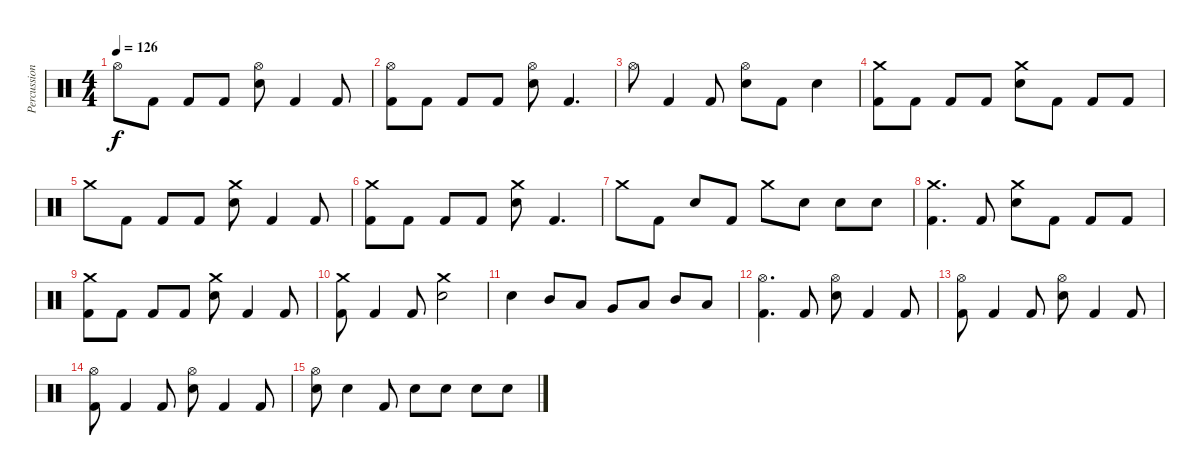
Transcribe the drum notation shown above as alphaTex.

\track ("Percussion" "Percussion") {instrument percussion}
\staff {score}
\articulation defaults
\ts (4 4)
\tempo 126
\clef neutral
\ks c "Hi-Hat (open)".8{dy f} "Kick (hit) 2".8 "Kick (hit) 2".8 "Kick (hit) 2".8
("Hi-Hat (open)" "Electric Snare (hit)").8 "Kick (hit) 2".4 "Kick (hit) 2".8 |
("Hi-Hat (open)" "Kick (hit) 2").8 "Kick (hit) 2".8 "Kick (hit) 2".8 "Kick (hit) 2".8 ("Hi-Hat (open)" "Electric Snare (hit)").8 "Kick (hit) 2".4{d} |
"Hi-Hat (open)".8 "Kick (hit) 2".4 "Kick (hit) 2".8 ("Hi-Hat (open)" "Electric Snare (hit)").8 "Kick (hit) 2".8 "Electric Snare (hit)".4 |
("Crash medium (hit)" "Kick (hit) 2").8{volume 10} "Kick (hit) 2".8 "Kick (hit) 2".8 "Kick (hit) 2".8 ("Crash medium (hit)" "Electric Snare (hit)").8 "Kick (hit) 2".8 "Kick (hit) 2".8 "Kick (hit) 2".8 |
"Crash medium (hit)".8 "Kick (hit) 2".8{volume 9} "Kick (hit) 2".8 "Kick (hit) 2".8 ("Crash medium (hit)" "Electric Snare (hit)").8 "Kick (hit) 2".4 "Kick (hit) 2".8 |
("Crash medium (hit)" "Kick (hit) 2").8{volume 8} "Kick (hit) 2".8 "Kick (hit) 2".8 "Kick (hit) 2".8 ("Crash medium (hit)" "Electric Snare (hit)").8 "Kick (hit) 2".4{d} |
"Crash medium (hit)".8{volume 7} "Kick (hit) 2".8 "Electric Snare (hit)".8 "Kick (hit) 2".8 "Crash medium (hit)".8 "Electric Snare (hit)".8 "Electric Snare (hit)".8 "Electric Snare (hit)".8 |
("Crash medium (hit)" "Kick (hit) 2").4{d volume 6} "Kick (hit) 2".8 ("Crash medium (hit)" "Electric Snare (hit)").8 "Kick (hit) 2".8 "Kick (hit) 2".8 "Kick (hit) 2".8 |
("Crash medium (hit)" "Kick (hit) 2").8{volume 5} "Kick (hit) 2".8 "Kick (hit) 2".8 "Kick (hit) 2".8 ("Crash medium (hit)" "Electric Snare (hit)").8 "Kick (hit) 2".4 "Kick (hit) 2".8 |
("Crash medium (hit)" "Kick (hit) 2").8{volume 4} "Kick (hit) 2".4 "Kick (hit) 2".8 ("Crash medium (hit)" "Electric Snare (hit)").2 |
"Electric Snare (hit)".4{volume 3} "Mid Tom (hit)".8 "Low Tom (hit)".8 "Very Low Tom (hit)".8 "Low Floor Tom (hit)".8 "Mid Tom (hit)".8 "Low Tom (hit)".8 |
("Hi-Hat (open)" "Kick (hit) 2").4{d volume 2} "Kick (hit) 2".8 ("Hi-Hat (open)" "Electric Snare (hit)").8 "Kick (hit) 2".4 "Kick (hit) 2".8 |
("Hi-Hat (open)" "Kick (hit) 2").8{volume 1} "Kick (hit) 2".4 "Kick (hit) 2".8 ("Hi-Hat (open)" "Electric Snare (hit)").8 "Kick (hit) 2".4 "Kick (hit) 2".8 |
("Hi-Hat (open)" "Kick (hit) 2").8 "Kick (hit) 2".4 "Kick (hit) 2".8 ("Hi-Hat (open)" "Electric Snare (hit)").8 "Kick (hit) 2".4 "Kick (hit) 2".8 |
("Hi-Hat (open)" "Electric Snare (hit)").8 "Electric Snare (hit)".4 "Kick (hit) 2".8 "Electric Snare (hit)".8 "Electric Snare (hit)".8 "Electric Snare (hit)".8 "Electric Snare (hit)".8
